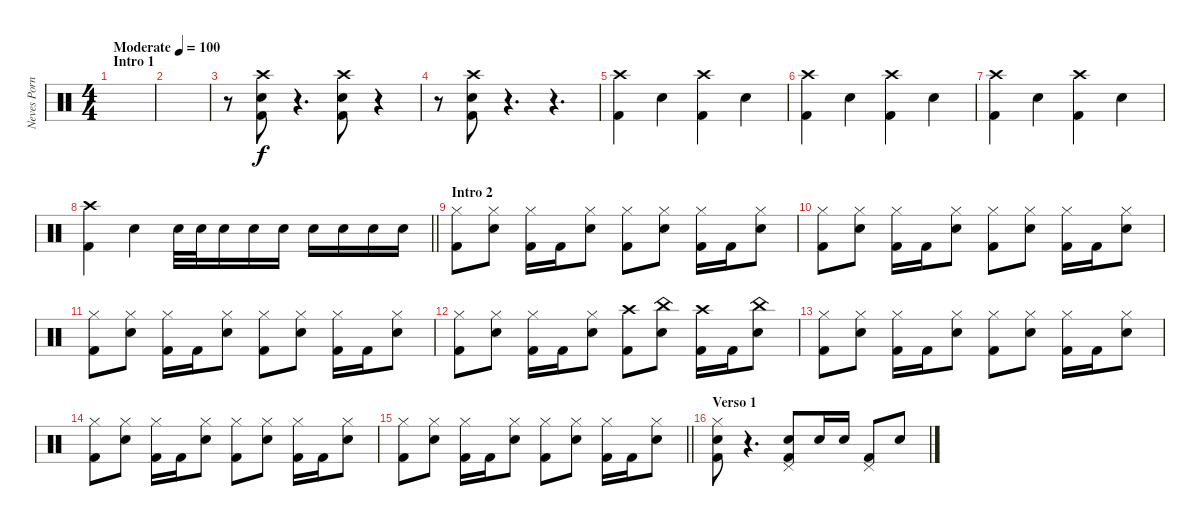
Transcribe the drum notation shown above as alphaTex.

\track ("Neves Porntoy" "Neves Porn") {instrument percussion}
\staff {score}
\articulation defaults
\ts (4 4)
\section ("" "Intro 1")
\tempo (100 "Moderate")
\clef neutral
\ks c
|
|
r.8 ("Electric Snare (hit)" "Kick (hit) 2" "Crash high (hit)").8 r.4{d} ("Electric Snare (hit)" "Kick (hit) 2" "Crash high (hit)").8 r.4 |
r.8 ("Electric Snare (hit)" "Kick (hit) 2" "Crash high (hit)").8 r.4{d} r.4{d} |
("Kick (hit) 2" "Crash high (hit)").4 "Electric Snare (hit)".4 ("Kick (hit) 2" "Crash high (hit)").4 "Electric Snare (hit)".4 |
("Kick (hit) 2" "Crash high (hit)").4 "Electric Snare (hit)".4 ("Kick (hit) 2" "Crash high (hit)").4 "Electric Snare (hit)".4 |
("Kick (hit) 2" "Crash high (hit)").4 "Electric Snare (hit)".4 ("Kick (hit) 2" "Crash high (hit)").4 "Electric Snare (hit)".4 |
\barLineRight lightlight
("Kick (hit) 2" "Crash high (hit)").4 "Electric Snare (hit)".4 "Electric Snare (hit)".32 "Electric Snare (hit)".32 "Electric Snare (hit)".16 "Electric Snare (hit)".16 "Electric Snare (hit)".16 "Electric Snare (hit)".16 "Electric Snare (hit)".16 "Electric Snare (hit)".16 "Electric Snare (hit)".16 |
\section ("" "Intro 2")
("Kick (hit) 2" "Hi-Hat (closed)").8 ("Electric Snare (hit)" "Hi-Hat (closed)").8 ("Kick (hit) 2" "Hi-Hat (closed)").16 "Kick (hit) 2".16 ("Electric Snare (hit)" "Hi-Hat (closed)").8 ("Kick (hit) 2" "Hi-Hat (closed)").8 ("Electric Snare (hit)" "Hi-Hat (closed)").8 ("Kick (hit) 2" "Hi-Hat (closed)").16 "Kick (hit) 2".16 ("Electric Snare (hit)" "Hi-Hat (closed)").8 |
("Kick (hit) 2" "Hi-Hat (closed)").8 ("Electric Snare (hit)" "Hi-Hat (closed)").8 ("Kick (hit) 2" "Hi-Hat (closed)").16 "Kick (hit) 2".16 ("Electric Snare (hit)" "Hi-Hat (closed)").8 ("Kick (hit) 2" "Hi-Hat (closed)").8 ("Electric Snare (hit)" "Hi-Hat (closed)").8 ("Kick (hit) 2" "Hi-Hat (closed)").16 "Kick (hit) 2".16 ("Electric Snare (hit)" "Hi-Hat (closed)").8 |
("Kick (hit) 2" "Hi-Hat (closed)").8 ("Electric Snare (hit)" "Hi-Hat (closed)").8 ("Kick (hit) 2" "Hi-Hat (closed)").16 "Kick (hit) 2".16 ("Electric Snare (hit)" "Hi-Hat (closed)").8 ("Kick (hit) 2" "Hi-Hat (closed)").8 ("Electric Snare (hit)" "Hi-Hat (closed)").8 ("Kick (hit) 2" "Hi-Hat (closed)").16 "Kick (hit) 2".16 ("Electric Snare (hit)" "Hi-Hat (closed)").8 |
("Kick (hit) 2" "Hi-Hat (closed)").8 ("Electric Snare (hit)" "Hi-Hat (closed)").8 ("Kick (hit) 2" "Hi-Hat (closed)").16 "Kick (hit) 2".16 ("Electric Snare (hit)" "Hi-Hat (closed)").8 ("Kick (hit) 2" "Crash high (hit)").8 ("Electric Snare (hit)" "China (hit)").8 ("Kick (hit) 2" "Crash high (hit)").16 "Kick (hit) 2".16 ("Electric Snare (hit)" "China (hit)").8 |
("Kick (hit) 2" "Hi-Hat (closed)").8 ("Electric Snare (hit)" "Hi-Hat (closed)").8 ("Kick (hit) 2" "Hi-Hat (closed)").16 "Kick (hit) 2".16 ("Electric Snare (hit)" "Hi-Hat (closed)").8 ("Kick (hit) 2" "Hi-Hat (closed)").8 ("Electric Snare (hit)" "Hi-Hat (closed)").8 ("Kick (hit) 2" "Hi-Hat (closed)").16 "Kick (hit) 2".16 ("Electric Snare (hit)" "Hi-Hat (closed)").8 |
("Kick (hit) 2" "Hi-Hat (closed)").8 ("Electric Snare (hit)" "Hi-Hat (closed)").8 ("Kick (hit) 2" "Hi-Hat (closed)").16 "Kick (hit) 2".16 ("Electric Snare (hit)" "Hi-Hat (closed)").8 ("Kick (hit) 2" "Hi-Hat (closed)").8 ("Electric Snare (hit)" "Hi-Hat (closed)").8 ("Kick (hit) 2" "Hi-Hat (closed)").16 "Kick (hit) 2".16 ("Electric Snare (hit)" "Hi-Hat (closed)").8 |
\barLineRight lightlight
("Kick (hit) 2" "Hi-Hat (closed)").8 ("Electric Snare (hit)" "Hi-Hat (closed)").8 ("Kick (hit) 2" "Hi-Hat (closed)").16 "Kick (hit) 2".16 ("Electric Snare (hit)" "Hi-Hat (closed)").8 ("Kick (hit) 2" "Hi-Hat (closed)").8 ("Electric Snare (hit)" "Hi-Hat (closed)").8 ("Kick (hit) 2" "Hi-Hat (closed)").16 "Kick (hit) 2".16 ("Electric Snare (hit)" "Hi-Hat (closed)").8 |
\section ("" "Verso 1")
("Electric Snare (hit)" "Kick (hit) 2" "Hi-Hat (closed)").8 r.4{d} ("Electric Snare (hit)" "Kick (hit) 2" "Pedal Hi-Hat (hit)").8 "Electric Snare (hit)".16 "Electric Snare (hit)".16 ("Kick (hit) 2" "Pedal Hi-Hat (hit)").8 "Electric Snare (hit)".8
